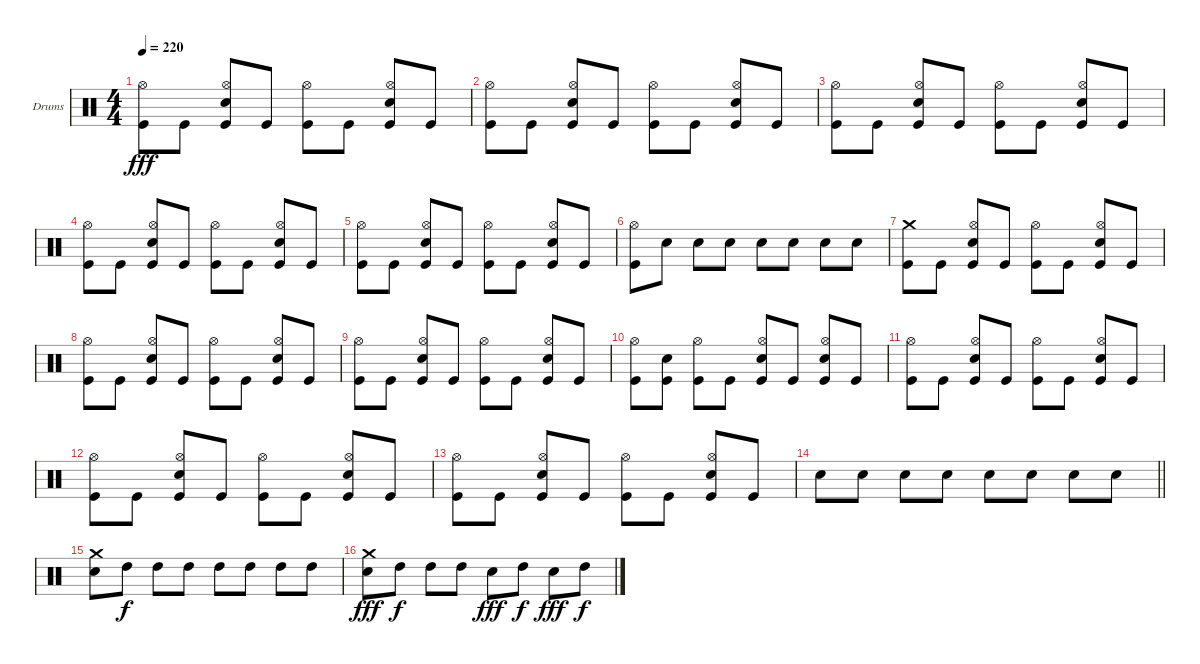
\bracketExtendMode groupsimilarinstruments
\firstSystemTrackNameOrientation horizontal
\otherSystemsTrackNameOrientation horizontal
\track ("Stefan Schwarzmann" "Drums") {instrument percussion}
\staff {score}
\articulation defaults
\ts (4 4)
\tempo 220
\clef neutral
\ks c
("Kick (hit)" "Hi-Hat (open)").8{dy fff} "Kick (hit)".8 ("Kick (hit)" "Snare (hit) 2" "Hi-Hat (open)").8 "Kick (hit)".8 ("Kick (hit)" "Hi-Hat (open)").8 "Kick (hit)".8 ("Kick (hit)" "Snare (hit) 2" "Hi-Hat (open)").8 "Kick (hit)".8 |
("Kick (hit)" "Hi-Hat (open)").8 "Kick (hit)".8 ("Kick (hit)" "Snare (hit) 2" "Hi-Hat (open)").8 "Kick (hit)".8 ("Kick (hit)" "Hi-Hat (open)").8 "Kick (hit)".8 ("Kick (hit)" "Snare (hit) 2" "Hi-Hat (open)").8 "Kick (hit)".8 |
("Kick (hit)" "Hi-Hat (open)").8 "Kick (hit)".8 ("Kick (hit)" "Snare (hit) 2" "Hi-Hat (open)").8 "Kick (hit)".8 ("Kick (hit)" "Hi-Hat (open)").8 "Kick (hit)".8 ("Kick (hit)" "Snare (hit) 2" "Hi-Hat (open)").8 "Kick (hit)".8 |
("Kick (hit)" "Hi-Hat (open)").8 "Kick (hit)".8 ("Kick (hit)" "Snare (hit) 2" "Hi-Hat (open)").8 "Kick (hit)".8 ("Kick (hit)" "Hi-Hat (open)").8 "Kick (hit)".8 ("Kick (hit)" "Snare (hit) 2" "Hi-Hat (open)").8 "Kick (hit)".8 |
("Kick (hit)" "Hi-Hat (open)").8 "Kick (hit)".8 ("Kick (hit)" "Snare (hit) 2" "Hi-Hat (open)").8 "Kick (hit)".8 ("Kick (hit)" "Hi-Hat (open)").8 "Kick (hit)".8 ("Kick (hit)" "Snare (hit) 2" "Hi-Hat (open)").8 "Kick (hit)".8 |
("Kick (hit)" "Hi-Hat (open)").8 "Snare (hit) 2".8 "Snare (hit) 2".8 "Snare (hit) 2".8 "Snare (hit) 2".8 "Snare (hit) 2".8 "Snare (hit) 2".8 "Snare (hit) 2".8 |
("Kick (hit)" "Crash medium (hit)").8 "Kick (hit)".8 ("Kick (hit)" "Snare (hit) 2" "Hi-Hat (open)").8 "Kick (hit)".8 ("Kick (hit)" "Hi-Hat (open)").8 "Kick (hit)".8 ("Kick (hit)" "Snare (hit) 2" "Hi-Hat (open)").8 "Kick (hit)".8 |
("Kick (hit)" "Hi-Hat (open)").8 "Kick (hit)".8 ("Kick (hit)" "Snare (hit) 2" "Hi-Hat (open)").8 "Kick (hit)".8 ("Kick (hit)" "Hi-Hat (open)").8 "Kick (hit)".8 ("Kick (hit)" "Snare (hit) 2" "Hi-Hat (open)").8 "Kick (hit)".8 |
("Kick (hit)" "Hi-Hat (open)").8 "Kick (hit)".8 ("Kick (hit)" "Snare (hit) 2" "Hi-Hat (open)").8 "Kick (hit)".8 ("Kick (hit)" "Hi-Hat (open)").8 "Kick (hit)".8 ("Kick (hit)" "Snare (hit) 2" "Hi-Hat (open)").8 "Kick (hit)".8 |
("Kick (hit)" "Hi-Hat (open)").8 ("Kick (hit)" "Snare (hit) 2").8 ("Kick (hit)" "Hi-Hat (open)").8 "Kick (hit)".8 ("Kick (hit)" "Snare (hit) 2" "Hi-Hat (open)").8 "Kick (hit)".8 ("Kick (hit)" "Snare (hit) 2" "Hi-Hat (open)").8 "Kick (hit)".8 |
("Kick (hit)" "Hi-Hat (open)").8 "Kick (hit)".8 ("Kick (hit)" "Snare (hit) 2" "Hi-Hat (open)").8 "Kick (hit)".8 ("Kick (hit)" "Hi-Hat (open)").8 "Kick (hit)".8 ("Kick (hit)" "Snare (hit) 2" "Hi-Hat (open)").8 "Kick (hit)".8 |
("Kick (hit)" "Hi-Hat (open)").8 "Kick (hit)".8 ("Kick (hit)" "Snare (hit) 2" "Hi-Hat (open)").8 "Kick (hit)".8 ("Kick (hit)" "Hi-Hat (open)").8 "Kick (hit)".8 ("Kick (hit)" "Snare (hit) 2" "Hi-Hat (open)").8 "Kick (hit)".8 |
("Kick (hit)" "Hi-Hat (open)").8 "Kick (hit)".8 ("Kick (hit)" "Snare (hit) 2" "Hi-Hat (open)").8 "Kick (hit)".8 ("Kick (hit)" "Hi-Hat (open)").8 "Kick (hit)".8 ("Kick (hit)" "Snare (hit) 2" "Hi-Hat (open)").8 "Kick (hit)".8 |
\barLineRight lightlight "Snare (hit) 2".8 "Snare (hit) 2".8 "Snare (hit) 2".8 "Snare (hit) 2".8 "Snare (hit) 2".8 "Snare (hit) 2".8 "Snare (hit) 2".8 "Snare (hit) 2".8
|
("Snare (hit) 2" "Crash medium (hit)").8 "High Tom (hit)".8{dy f} "High Tom (hit)".8 "High Tom (hit)".8 "High Tom (hit)".8 "High Tom (hit)".8 "High Tom (hit)".8 "High Tom (hit)".8 |
("Snare (hit) 2" "Crash medium (hit)").8{dy fff} "High Tom (hit)".8{dy f} "High Tom (hit)".8 "High Tom (hit)".8 "Snare (hit) 2".8{dy fff} "High Tom (hit)".8{dy f} "Snare (hit) 2".8{dy fff} "High Tom (hit)".8{dy f}
